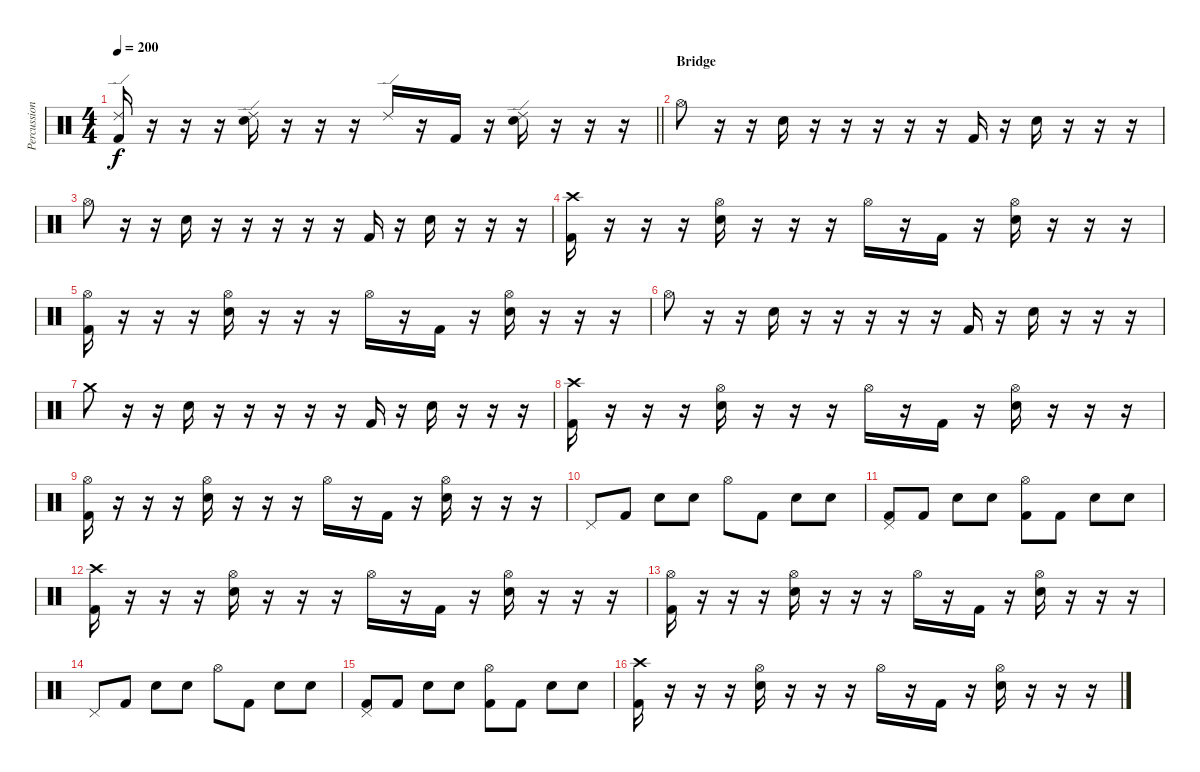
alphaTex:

\track ("Percussion" "Percussion") {instrument percussion}
\staff {score}
\articulation defaults
\ts (4 4)
\tempo 200
\clef neutral
\barLineRight lightlight
\ks c
("Ride (edge) 2" "Kick (hit) 2").16{dy f} r.16 r.16 r.16 ("Ride (edge) 2" "Electric Snare (hit)").16 r.16 r.16 r.16 "Ride (edge) 2".16 r.16 "Kick (hit) 2".16 r.16 ("Ride (edge) 2" "Electric Snare (hit)").16 r.16 r.16 r.16 |
\section ("" "Bridge")
"Hi-Hat (open)".8 r.16 r.16 "Electric Snare (hit)".16 r.16 r.16 r.16 r.16 r.16 "Kick (hit) 2".16 r.16 "Electric Snare (hit)".16 r.16 r.16 r.16 |
"Hi-Hat (open)".8 r.16 r.16 "Electric Snare (hit)".16 r.16 r.16 r.16 r.16 r.16 "Kick (hit) 2".16 r.16 "Electric Snare (hit)".16 r.16 r.16 r.16 |
("Crash high (hit)" "Kick (hit) 2").16 r.16 r.16 r.16 ("Hi-Hat (open)" "Electric Snare (hit)").16 r.16 r.16 r.16 "Hi-Hat (open)".16 r.16 "Kick (hit) 2".16 r.16 ("Hi-Hat (open)" "Electric Snare (hit)").16 r.16 r.16 r.16 |
("Hi-Hat (open)" "Kick (hit) 2").16 r.16 r.16 r.16 ("Hi-Hat (open)" "Electric Snare (hit)").16 r.16 r.16 r.16 "Hi-Hat (open)".16 r.16 "Kick (hit) 2".16 r.16 ("Hi-Hat (open)" "Electric Snare (hit)").16 r.16 r.16 r.16 |
"Hi-Hat (open)".8 r.16 r.16 "Electric Snare (hit)".16 r.16 r.16 r.16 r.16 r.16 "Kick (hit) 2".16 r.16 "Electric Snare (hit)".16 r.16 r.16 r.16 |
"Crash medium (hit)".8 r.16 r.16 "Electric Snare (hit)".16 r.16 r.16 r.16 r.16 r.16 "Kick (hit) 2".16 r.16 "Electric Snare (hit)".16 r.16 r.16 r.16 |
("Crash high (hit)" "Kick (hit) 2").16 r.16 r.16 r.16 ("Hi-Hat (open)" "Electric Snare (hit)").16 r.16 r.16 r.16 "Hi-Hat (open)".16 r.16 "Kick (hit) 2".16 r.16 ("Hi-Hat (open)" "Electric Snare (hit)").16 r.16 r.16 r.16 |
("Hi-Hat (open)" "Kick (hit) 2").16 r.16 r.16 r.16 ("Hi-Hat (open)" "Electric Snare (hit)").16 r.16 r.16 r.16 "Hi-Hat (open)".16 r.16 "Kick (hit) 2".16 r.16 ("Hi-Hat (open)" "Electric Snare (hit)").16 r.16 r.16 r.16 |
"Pedal Hi-Hat (hit)".8 "Kick (hit) 2".8 "Electric Snare (hit)".8 "Electric Snare (hit)".8 "Hi-Hat (open)".8 "Kick (hit) 2".8 "Electric Snare (hit)".8 "Electric Snare (hit)".8 |
("Pedal Hi-Hat (hit)" "Kick (hit) 2").8 "Kick (hit) 2".8 "Electric Snare (hit)".8 "Electric Snare (hit)".8 ("Hi-Hat (open)" "Kick (hit) 2").8 "Kick (hit) 2".8 "Electric Snare (hit)".8 "Electric Snare (hit)".8 |
("Crash high (hit)" "Kick (hit) 2").16 r.16 r.16 r.16 ("Hi-Hat (open)" "Electric Snare (hit)").16 r.16 r.16 r.16 "Hi-Hat (open)".16 r.16 "Kick (hit) 2".16 r.16 ("Hi-Hat (open)" "Electric Snare (hit)").16 r.16 r.16 r.16 |
("Hi-Hat (open)" "Kick (hit) 2").16 r.16 r.16 r.16 ("Hi-Hat (open)" "Electric Snare (hit)").16 r.16 r.16 r.16 "Hi-Hat (open)".16 r.16 "Kick (hit) 2".16 r.16 ("Hi-Hat (open)" "Electric Snare (hit)").16 r.16 r.16 r.16 |
"Pedal Hi-Hat (hit)".8 "Kick (hit) 2".8 "Electric Snare (hit)".8 "Electric Snare (hit)".8 "Hi-Hat (open)".8 "Kick (hit) 2".8 "Electric Snare (hit)".8 "Electric Snare (hit)".8 |
("Pedal Hi-Hat (hit)" "Kick (hit) 2").8 "Kick (hit) 2".8 "Electric Snare (hit)".8 "Electric Snare (hit)".8 ("Hi-Hat (open)" "Kick (hit) 2").8 "Kick (hit) 2".8 "Electric Snare (hit)".8 "Electric Snare (hit)".8 |
("Crash high (hit)" "Kick (hit) 2").16 r.16 r.16 r.16 ("Hi-Hat (open)" "Electric Snare (hit)").16 r.16 r.16 r.16 "Hi-Hat (open)".16 r.16 "Kick (hit) 2".16 r.16 ("Hi-Hat (open)" "Electric Snare (hit)").16 r.16 r.16 r.16
